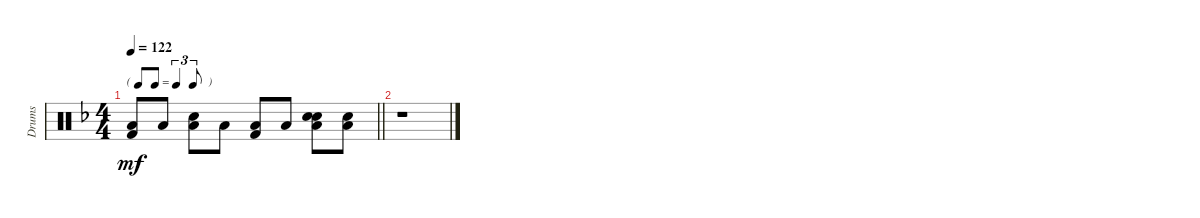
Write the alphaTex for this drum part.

\track ("Drums" "Drums") {instrument percussion}
\staff {score}
\articulation defaults
\ts (4 4)
\tf triplet8th
\tempo 122
\clef neutral
\barLineRight lightlight
\ks dminor
("Low Floor Tom (hit)" "Kick (hit) 2").8{dy mf} "Low Floor Tom (hit)".8 ("Low Floor Tom (hit)" "Snare (hit) 2").8 "Low Floor Tom (hit)".8 ("Low Floor Tom (hit)" "Kick (hit) 2").8 "Low Floor Tom (hit)".8 ("Hand Clap (hit)" "Low Floor Tom (hit)" "Snare (hit) 2").8 ("Hand Clap (hit)" "Low Floor Tom (hit)").8 |
r.1
